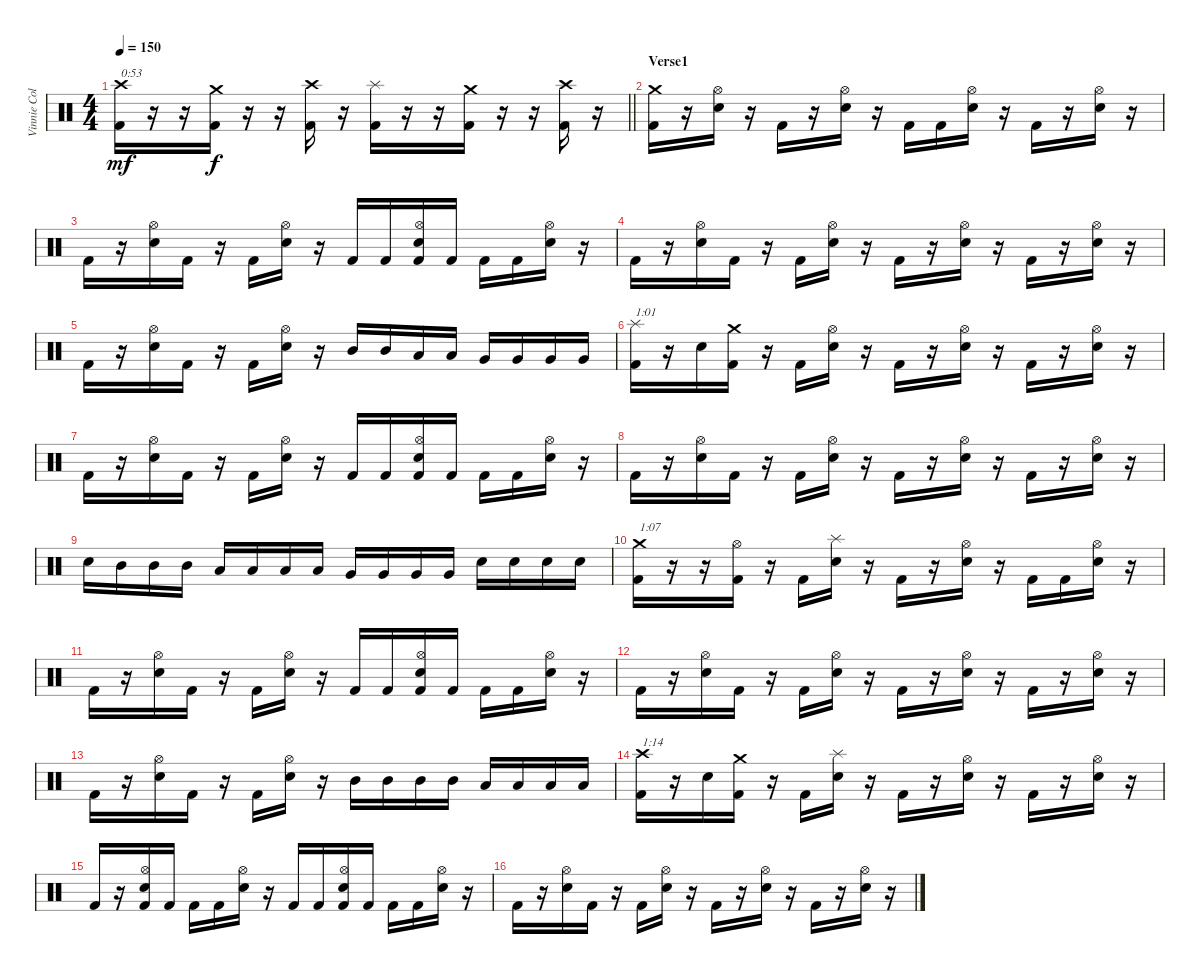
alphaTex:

\track ("Vinnie Colaiuta" "Vinnie Col") {instrument percussion}
\staff {score}
\articulation defaults
\ts (4 4)
\tempo 150
\clef neutral
\barLineRight lightlight
\ks c
("Crash high (hit)" "Kick (hit) 2").16{txt "0:53" dy mf} r.16 r.16 ("Crash medium (hit)" "Kick (hit) 2").16{dy f} r.16 r.16 ("Crash high (hit)" "Kick (hit) 2").16 r.16 ("Splash (hit)" "Kick (hit) 2").16 r.16 r.16 ("Crash medium (hit)" "Kick (hit) 2").16 r.16 r.16 ("Crash high (hit)" "Kick (hit) 2").16 r.16 |
\section ("" "Verse1")
("Crash medium (hit)" "Kick (hit) 2").16 r.16 ("Hi-Hat (open)" "Electric Snare (hit)").16 r.16 "Kick (hit) 2".16 r.16 ("Hi-Hat (open)" "Electric Snare (hit)").16 r.16 "Kick (hit) 2".16 "Kick (hit) 2".16 ("Hi-Hat (open)" "Electric Snare (hit)").16 r.16 "Kick (hit) 2".16 r.16 ("Hi-Hat (open)" "Electric Snare (hit)").16 r.16 |
"Kick (hit) 2".16 r.16 ("Hi-Hat (open)" "Electric Snare (hit)").16 "Kick (hit) 2".16 r.16 "Kick (hit) 2".16 ("Hi-Hat (open)" "Electric Snare (hit)").16 r.16 "Kick (hit) 2".16 "Kick (hit) 2".16 ("Hi-Hat (open)" "Electric Snare (hit)" "Kick (hit) 2").16 "Kick (hit) 2".16 "Kick (hit) 2".16 "Kick (hit) 2".16 ("Hi-Hat (open)" "Electric Snare (hit)").16 r.16 |
"Kick (hit) 2".16 r.16 ("Hi-Hat (open)" "Electric Snare (hit)").16 "Kick (hit) 2".16 r.16 "Kick (hit) 2".16 ("Hi-Hat (open)" "Electric Snare (hit)").16 r.16 "Kick (hit) 2".16 r.16 ("Hi-Hat (open)" "Electric Snare (hit)").16 r.16 "Kick (hit) 2".16 r.16 ("Hi-Hat (open)" "Electric Snare (hit)").16 r.16 |
"Kick (hit) 2".16 r.16 ("Hi-Hat (open)" "Electric Snare (hit)").16 "Kick (hit) 2".16 r.16 "Kick (hit) 2".16 ("Hi-Hat (open)" "Electric Snare (hit)").16 r.16 "Mid Tom (hit)".16 "Mid Tom (hit)".16 "Low Tom (hit)".16 "Low Tom (hit)".16 "Very Low Tom (hit)".16 "Very Low Tom (hit)".16 "Very Low Tom (hit)".16 "Very Low Tom (hit)".16 |
("Splash (hit)" "Kick (hit) 2").16{txt "1:01"} r.16 "Electric Snare (hit)".16 ("Crash medium (hit)" "Kick (hit) 2").16 r.16 "Kick (hit) 2".16 ("Hi-Hat (open)" "Electric Snare (hit)").16 r.16 "Kick (hit) 2".16 r.16 ("Hi-Hat (open)" "Electric Snare (hit)").16 r.16 "Kick (hit) 2".16 r.16 ("Hi-Hat (open)" "Electric Snare (hit)").16 r.16 |
"Kick (hit) 2".16 r.16 ("Hi-Hat (open)" "Electric Snare (hit)").16 "Kick (hit) 2".16 r.16 "Kick (hit) 2".16 ("Hi-Hat (open)" "Electric Snare (hit)").16 r.16 "Kick (hit) 2".16 "Kick (hit) 2".16 ("Hi-Hat (open)" "Electric Snare (hit)" "Kick (hit) 2").16 "Kick (hit) 2".16 "Kick (hit) 2".16 "Kick (hit) 2".16 ("Hi-Hat (open)" "Electric Snare (hit)").16 r.16 |
"Kick (hit) 2".16 r.16 ("Hi-Hat (open)" "Electric Snare (hit)").16 "Kick (hit) 2".16 r.16 "Kick (hit) 2".16 ("Hi-Hat (open)" "Electric Snare (hit)").16 r.16 "Kick (hit) 2".16 r.16 ("Hi-Hat (open)" "Electric Snare (hit)").16 r.16 "Kick (hit) 2".16 r.16 ("Hi-Hat (open)" "Electric Snare (hit)").16 r.16 |
"Electric Snare (hit)".16 "Mid Tom (hit)".16 "Mid Tom (hit)".16 "Mid Tom (hit)".16 "Low Tom (hit)".16 "Low Tom (hit)".16 "Low Tom (hit)".16 "Low Tom (hit)".16 "Very Low Tom (hit)".16 "Very Low Tom (hit)".16 "Very Low Tom (hit)".16 "Very Low Tom (hit)".16 "Electric Snare (hit)".16 "Electric Snare (hit)".16 "Electric Snare (hit)".16 "Electric Snare (hit)".16 |
("Crash medium (hit)" "Kick (hit) 2").16{txt "1:07"} r.16 r.16 ("Hi-Hat (open)" "Kick (hit) 2").16 r.16 "Kick (hit) 2".16 ("Splash (hit)" "Electric Snare (hit)").16 r.16 "Kick (hit) 2".16 r.16 ("Hi-Hat (open)" "Electric Snare (hit)").16 r.16 "Kick (hit) 2".16 "Kick (hit) 2".16 ("Hi-Hat (open)" "Electric Snare (hit)").16 r.16 |
"Kick (hit) 2".16 r.16 ("Hi-Hat (open)" "Electric Snare (hit)").16 "Kick (hit) 2".16 r.16 "Kick (hit) 2".16 ("Hi-Hat (open)" "Electric Snare (hit)").16 r.16 "Kick (hit) 2".16 "Kick (hit) 2".16 ("Hi-Hat (open)" "Electric Snare (hit)" "Kick (hit) 2").16 "Kick (hit) 2".16 "Kick (hit) 2".16 "Kick (hit) 2".16 ("Hi-Hat (open)" "Electric Snare (hit)").16 r.16 |
"Kick (hit) 2".16 r.16 ("Hi-Hat (open)" "Electric Snare (hit)").16 "Kick (hit) 2".16 r.16 "Kick (hit) 2".16 ("Hi-Hat (open)" "Electric Snare (hit)").16 r.16 "Kick (hit) 2".16 r.16 ("Hi-Hat (open)" "Electric Snare (hit)").16 r.16 "Kick (hit) 2".16 r.16 ("Hi-Hat (open)" "Electric Snare (hit)").16 r.16 |
"Kick (hit) 2".16 r.16 ("Hi-Hat (open)" "Electric Snare (hit)").16 "Kick (hit) 2".16 r.16 "Kick (hit) 2".16 ("Hi-Hat (open)" "Electric Snare (hit)").16 r.16 "Mid Tom (hit)".16 "Mid Tom (hit)".16 "Mid Tom (hit)".16 "Mid Tom (hit)".16 "Low Tom (hit)".16 "Low Tom (hit)".16 "Low Tom (hit)".16 "Low Tom (hit)".16 |
("Crash high (hit)" "Kick (hit) 2").16{txt "1:14"} r.16 "Electric Snare (hit)".16 ("Crash medium (hit)" "Kick (hit) 2").16 r.16 "Kick (hit) 2".16 ("Splash (hit)" "Electric Snare (hit)").16 r.16 "Kick (hit) 2".16 r.16 ("Hi-Hat (open)" "Electric Snare (hit)").16 r.16 "Kick (hit) 2".16 r.16 ("Hi-Hat (open)" "Electric Snare (hit)").16 r.16 |
"Kick (hit) 2".16 r.16 ("Hi-Hat (open)" "Electric Snare (hit)" "Kick (hit) 2").16 "Kick (hit) 2".16 "Kick (hit) 2".16 "Kick (hit) 2".16 ("Hi-Hat (open)" "Electric Snare (hit)").16 r.16 "Kick (hit) 2".16 "Kick (hit) 2".16 ("Hi-Hat (open)" "Electric Snare (hit)" "Kick (hit) 2").16 "Kick (hit) 2".16 "Kick (hit) 2".16 "Kick (hit) 2".16 ("Hi-Hat (open)" "Electric Snare (hit)").16 r.16 |
"Kick (hit) 2".16 r.16 ("Hi-Hat (open)" "Electric Snare (hit)").16 "Kick (hit) 2".16 r.16 "Kick (hit) 2".16 ("Hi-Hat (open)" "Electric Snare (hit)").16 r.16 "Kick (hit) 2".16 r.16 ("Hi-Hat (open)" "Electric Snare (hit)").16 r.16 "Kick (hit) 2".16 r.16 ("Hi-Hat (open)" "Electric Snare (hit)").16 r.16
